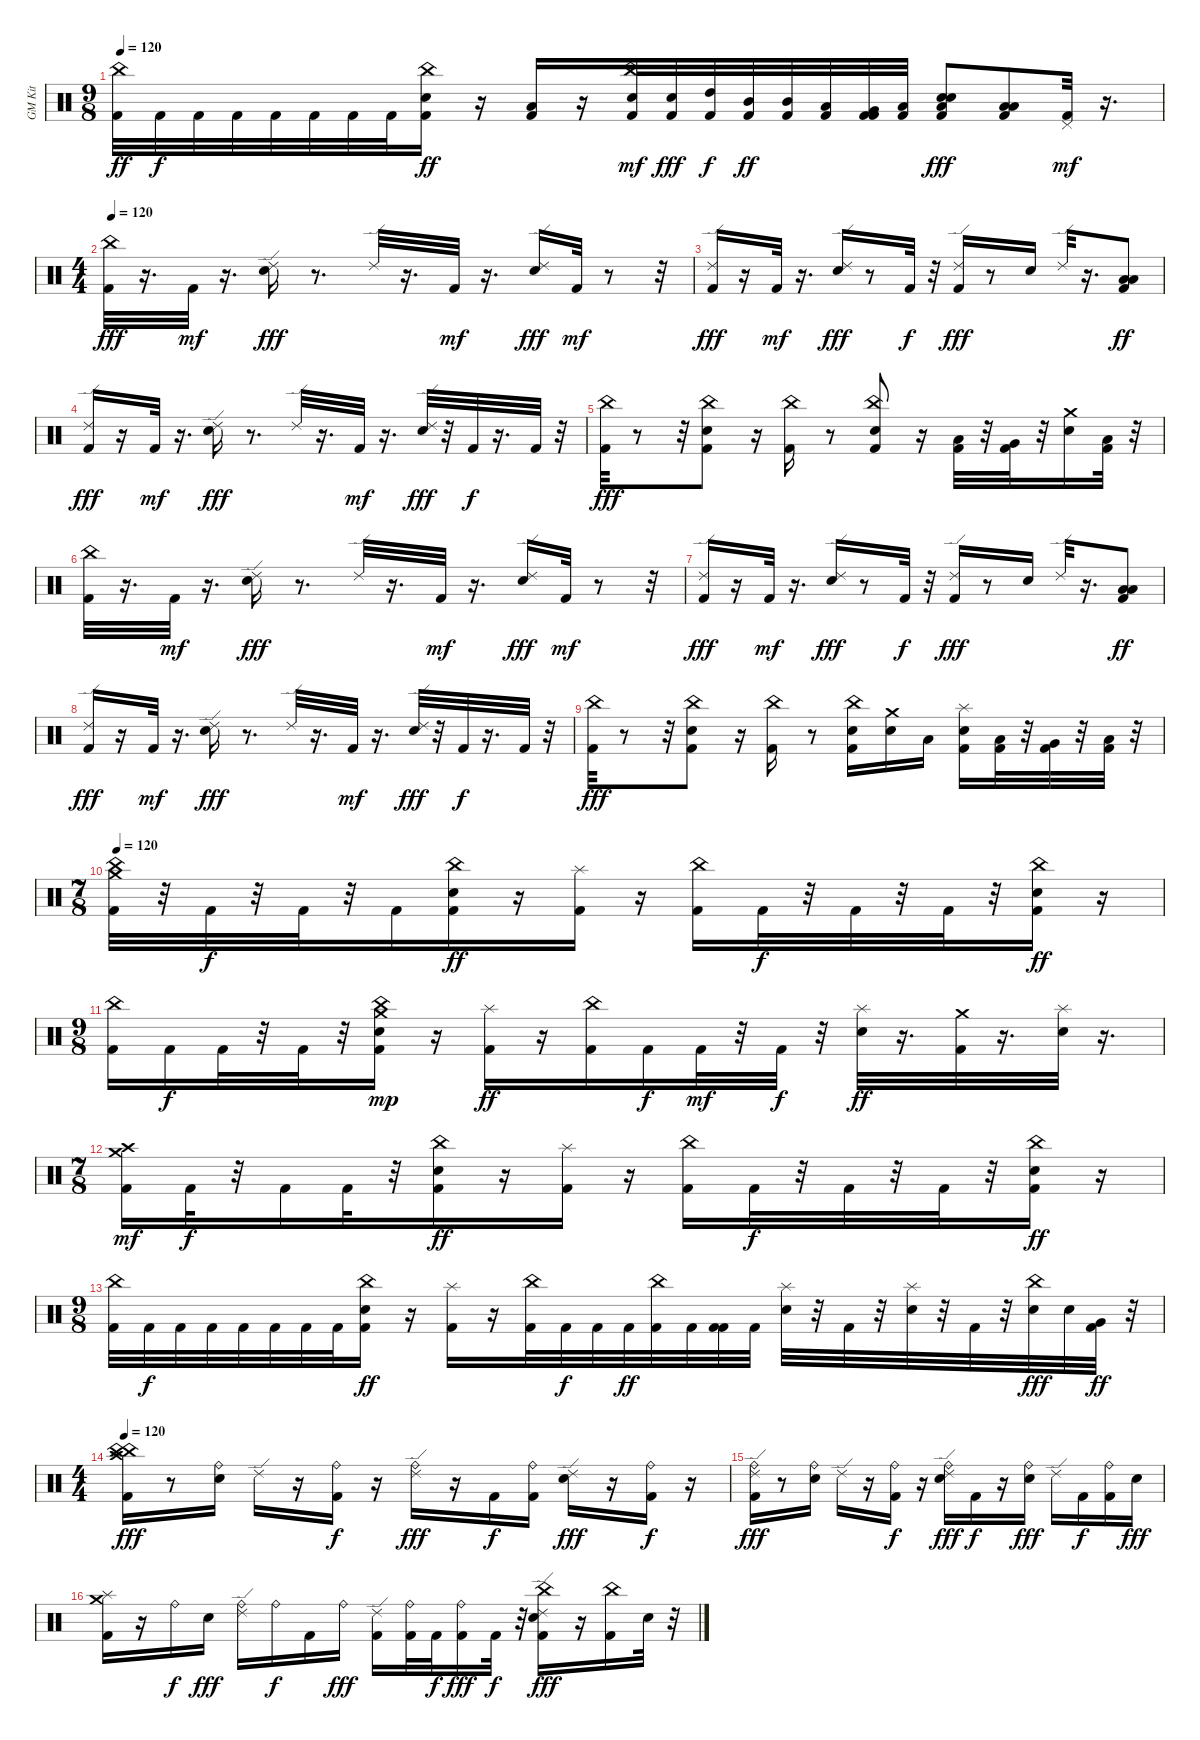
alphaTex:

\track ("GM Kit" "GM Kit") {instrument percussion}
\staff {score}
\articulation defaults
\ts (9 8)
\tempo 120
\clef neutral
\ks c
("Kick (hit) 2" "China (hit)").32{dy ff} "Kick (hit) 2".32{dy f} "Kick (hit) 2".32 "Kick (hit) 2".32 "Kick (hit) 2".32 "Kick (hit) 2".32 "Kick (hit) 2".32 "Kick (hit) 2".32 ("Kick (hit) 2" "Snare (hit) 2" "China (hit)").16{dy ff} r.16 ("Kick (hit) 2" "Low Floor Tom (hit)").16 r.16 ("Kick (hit) 2" "Snare (hit) 2" "China (hit)").32{dy mf} ("Kick (hit) 2" "Snare (hit) 2").32{dy fff} ("Kick (hit) 2" "High Tom (hit)").32{dy f} ("Kick (hit) 2" "Mid Tom (hit)").32{dy ff} ("Kick (hit) 2" "Mid Tom (hit)").32 ("Kick (hit) 2" "Low Tom (hit)").32 ("Kick (hit) 2" "Kick (hit) 2" "Very Low Tom (hit)").32 ("Kick (hit) 2" "Low Floor Tom (hit)").32 ("Kick (hit) 2" "Snare (hit) 2" "Low Floor Tom (hit)" "Snare (hit) 2").8{dy fff} ("Kick (hit) 2" "Low Floor Tom (hit)" "Low Floor Tom (hit)").8 ("Kick (hit) 2" "Pedal Hi-Hat (hit)").32{dy mf} r.16{d} |
\ts (4 4)
\tempo 120
("Kick (hit) 2" "China (hit)").32{dy fff} r.16{d} "Kick (hit) 2".32{dy mf} r.16{d} ("Snare (hit) 2" "Ride (edge) 2").16{dy fff} r.8{d} "Ride (edge) 2".32 r.16{d} "Kick (hit) 2".32{dy mf} r.16{d} ("Snare (hit) 2" "Ride (edge) 2").16{dy fff} "Kick (hit) 2".32{dy mf} r.8 r.32 |
("Kick (hit) 2" "Ride (edge) 2").16{dy fff} r.16 "Kick (hit) 2".32{dy mf} r.16{d} ("Snare (hit) 2" "Ride (edge) 2").16{dy fff} r.8 "Kick (hit) 2".32{dy f} r.32 ("Kick (hit) 2" "Ride (edge) 2").16{dy fff} r.8 "Snare (hit) 2".16 "Ride (edge) 2".32 r.16{d} ("Kick (hit) 2" "Low Floor Tom (hit)" "Low Floor Tom (hit)").8{dy ff} |
("Kick (hit) 2" "Ride (edge) 2").16{dy fff} r.16 "Kick (hit) 2".32{dy mf} r.16{d} ("Snare (hit) 2" "Ride (edge) 2").16{dy fff} r.8{d} "Ride (edge) 2".32 r.16{d} "Kick (hit) 2".32{dy mf} r.16{d} ("Snare (hit) 2" "Ride (edge) 2").32{dy fff} r.32 "Kick (hit) 2".32{dy f} r.16{d} "Kick (hit) 2".32 r.32 |
("Kick (hit) 2" "China (hit)").32{dy fff} r.8 r.32 ("Kick (hit) 2" "Snare (hit) 2" "China (hit)").8 r.16 ("Kick (hit) 2" "China (hit)").16 r.8 ("Kick (hit) 2" "Snare (hit) 2" "China (hit)").8 r.16 ("Kick (hit) 2" "Low Tom (hit)").32 r.32 ("Kick (hit) 2" "Very Low Tom (hit)").32 r.32 ("Snare (hit) 2" "Crash medium (hit)").16 ("Kick (hit) 2" "Low Floor Tom (hit)").32 r.32 |
("Kick (hit) 2" "China (hit)").32 r.16{d} "Kick (hit) 2".32{dy mf} r.16{d} ("Snare (hit) 2" "Ride (edge) 2").16{dy fff} r.8{d} "Ride (edge) 2".32 r.16{d} "Kick (hit) 2".32{dy mf} r.16{d} ("Snare (hit) 2" "Ride (edge) 2").16{dy fff} "Kick (hit) 2".32{dy mf} r.8 r.32 |
("Kick (hit) 2" "Ride (edge) 2").16{dy fff} r.16 "Kick (hit) 2".32{dy mf} r.16{d} ("Snare (hit) 2" "Ride (edge) 2").16{dy fff} r.8 "Kick (hit) 2".32{dy f} r.32 ("Kick (hit) 2" "Ride (edge) 2").16{dy fff} r.8 "Snare (hit) 2".16 "Ride (edge) 2".32 r.16{d} ("Kick (hit) 2" "Low Floor Tom (hit)" "Low Floor Tom (hit)").8{dy ff} |
("Kick (hit) 2" "Ride (edge) 2").16{dy fff} r.16 "Kick (hit) 2".32{dy mf} r.16{d} ("Snare (hit) 2" "Ride (edge) 2").16{dy fff} r.8{d} "Ride (edge) 2".32 r.16{d} "Kick (hit) 2".32{dy mf} r.16{d} ("Snare (hit) 2" "Ride (edge) 2").32{dy fff} r.32 "Kick (hit) 2".32{dy f} r.16{d} "Kick (hit) 2".32 r.32 |
("Kick (hit) 2" "China (hit)").32{dy fff} r.8 r.32 ("Kick (hit) 2" "Snare (hit) 2" "China (hit)").8 r.16 ("Kick (hit) 2" "China (hit)").16 r.8 ("Kick (hit) 2" "Snare (hit) 2" "China (hit)").16 ("Snare (hit) 2" "Crash medium (hit)").16 "Low Floor Tom (hit)".16 ("Kick (hit) 2" "Snare (hit) 2" "Splash (hit)").16 ("Kick (hit) 2" "Low Tom (hit)").32 r.32 ("Kick (hit) 2" "Very Low Tom (hit)").32 r.32 ("Kick (hit) 2" "Low Floor Tom (hit)").32 r.32 |
\ts (7 8)
\tempo 120
("Kick (hit) 2" "China (hit)" "Crash medium (hit)").32 r.32 "Kick (hit) 2".32{dy f} r.32 "Kick (hit) 2".32 r.32 "Kick (hit) 2".16 ("Kick (hit) 2" "Snare (hit) 2" "China (hit)").16{dy ff} r.16 ("Kick (hit) 2" "Splash (hit)").16 r.16 ("Kick (hit) 2" "China (hit)").16 "Kick (hit) 2".32{dy f} r.32 "Kick (hit) 2".32 r.32 "Kick (hit) 2".32 r.32 ("Kick (hit) 2" "Snare (hit) 2" "China (hit)").16{dy ff} r.16 |
\ts (9 8)
("Kick (hit) 2" "China (hit)").16 "Kick (hit) 2".16{dy f} "Kick (hit) 2".32 r.32 "Kick (hit) 2".32 r.32 ("Kick (hit) 2" "Snare (hit) 2" "China (hit)" "Crash medium (hit)").16{dy mp} r.16 ("Kick (hit) 2" "Splash (hit)").16{dy ff} r.16 ("Kick (hit) 2" "China (hit)").16 "Kick (hit) 2".16{dy f} "Kick (hit) 2".32{dy mf} r.32 "Kick (hit) 2".32{dy f} r.32 ("Snare (hit) 2" "Splash (hit)").32{dy ff} r.16{d} ("Kick (hit) 2" "Crash medium (hit)").32 r.16{d} ("Snare (hit) 2" "Splash (hit)").32 r.16{d} |
\ts (7 8)
("Kick (hit) 2" "Crash high (hit)" "Crash medium (hit)").16{dy mf} "Kick (hit) 2".32{dy f} r.32 "Kick (hit) 2".16 "Kick (hit) 2".32 r.32 ("Kick (hit) 2" "Snare (hit) 2" "China (hit)").16{dy ff} r.16 ("Kick (hit) 2" "Splash (hit)").16 r.16 ("Kick (hit) 2" "China (hit)").16 "Kick (hit) 2".32{dy f} r.32 "Kick (hit) 2".32 r.32 "Kick (hit) 2".32 r.32 ("Kick (hit) 2" "Snare (hit) 2" "China (hit)").16{dy ff} r.16 |
\ts (9 8)
("Kick (hit) 2" "China (hit)").32 "Kick (hit) 2".32{dy f} "Kick (hit) 2".32 "Kick (hit) 2".32 "Kick (hit) 2".32 "Kick (hit) 2".32 "Kick (hit) 2".32 "Kick (hit) 2".32 ("Kick (hit) 2" "Snare (hit) 2" "China (hit)").16{dy ff} r.16 ("Kick (hit) 2" "Splash (hit)").16 r.16 ("Kick (hit) 2" "China (hit)").32 "Kick (hit) 2".32{dy f} "Kick (hit) 2".32 "Kick (hit) 2".32{dy ff} ("Kick (hit) 2" "China (hit)").32 "Kick (hit) 2".32 ("Kick (hit) 2" "Kick (hit) 2").32 "Kick (hit) 2".32 ("Snare (hit) 2" "Splash (hit)").32 r.32 "Kick (hit) 2".32 r.32 ("Snare (hit) 2" "Splash (hit)").32 r.32 "Kick (hit) 2".32 r.32 ("Snare (hit) 2" "China (hit)").32{dy fff} "Snare (hit) 2".32 ("Kick (hit) 2" "Very Low Tom (hit)").32{dy ff} r.32 |
\ts (4 4)
\tempo 120
("Kick (hit) 2" "Crash high (hit)" "China (hit)" "China (hit)").16{dy fff} r.8 ("Snare (hit) 2" "Ride (bell)").16 "Ride (edge) 2".16 r.16 ("Kick (hit) 2" "Ride (bell)").16{dy f} r.16 ("Ride (bell)" "Ride (edge) 2").16{dy fff} r.16 "Kick (hit) 2".16{dy f} ("Kick (hit) 2" "Ride (bell)").16 ("Snare (hit) 2" "Ride (edge) 2").16{dy fff} r.16 ("Kick (hit) 2" "Ride (bell)").16{dy f} r.16 |
("Kick (hit) 2" "Ride (bell)" "Ride (edge) 2").16{dy fff} r.8 ("Snare (hit) 2" "Ride (bell)").16 "Ride (edge) 2".16 r.16 ("Kick (hit) 2" "Ride (bell)").16{dy f} r.16 ("Snare (hit) 2" "Ride (bell)" "Ride (edge) 2").16{dy fff} "Kick (hit) 2".16{dy f} r.16 ("Snare (hit) 2" "Ride (bell)").16{dy fff} "Ride (edge) 2".16 "Kick (hit) 2".16{dy f} ("Kick (hit) 2" "Ride (bell)").16 "Snare (hit) 2".16{dy fff} |
("Kick (hit) 2" "Splash (hit)" "Crash medium (hit)").16 r.16 "Ride (bell)".16{dy f} "Snare (hit) 2".16{dy fff} ("Ride (bell)" "Ride (edge) 2").16 "Ride (bell)".16{dy f} "Kick (hit) 2".16 "Ride (bell)".16{dy fff} ("Kick (hit) 2" "Ride (edge) 2").16 ("Kick (hit) 2" "Ride (bell)").32 "Kick (hit) 2".32{dy f} ("Kick (hit) 2" "Ride (bell)").16{dy fff} "Kick (hit) 2".32{dy f} r.32 ("Kick (hit) 2" "Snare (hit) 2" "China (hit)" "Ride (edge) 2").16{dy fff} r.16 ("Kick (hit) 2" "China (hit)").16 "Snare (hit) 2".32 r.32
